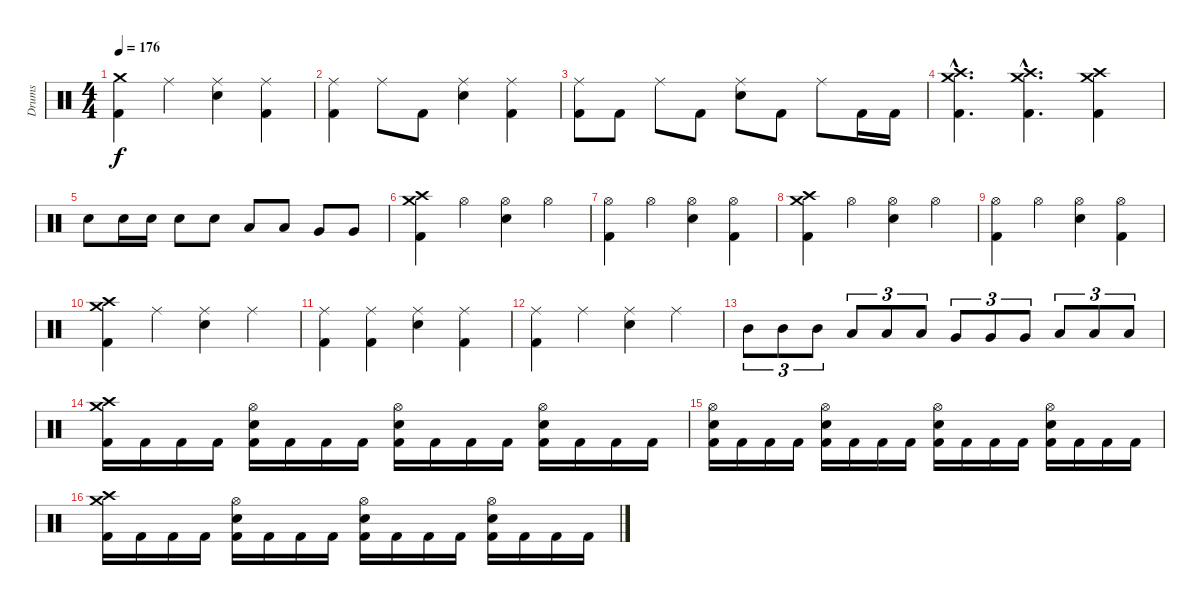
\track ("Drums" "Drums") {instrument percussion}
\staff {score}
\articulation defaults
\ts (4 4)
\tempo 176
\clef neutral
\ks c
("Crash medium (hit)" "Kick (hit) 2").4{dy f} "Ride (middle)".4 ("Ride (middle)" "Snare (hit) 2").4 ("Ride (middle)" "Kick (hit) 2").4 |
("Ride (middle)" "Kick (hit) 2").4 "Ride (middle)".8 "Kick (hit) 2".8 ("Ride (middle)" "Snare (hit) 2").4 ("Ride (middle)" "Kick (hit) 2").4 |
("Ride (middle)" "Kick (hit) 2").8 "Kick (hit) 2".8 "Ride (middle)".8 "Kick (hit) 2".8 ("Ride (middle)" "Snare (hit) 2").8 "Kick (hit) 2".8 "Ride (middle)".8 "Kick (hit) 2".16 "Kick (hit) 2".16 |
("Crash medium (hit)"{hac} "Crash high (hit)"{hac} "Kick (hit) 2"{hac}).4{d} ("Crash medium (hit)"{hac} "Crash high (hit)"{hac} "Kick (hit) 2"{hac}).4{d} ("Crash medium (hit)" "Crash high (hit)" "Kick (hit) 2").4 |
"Snare (hit) 2".8 "Snare (hit) 2".16 "Snare (hit) 2".16 "Snare (hit) 2".8 "Snare (hit) 2".8 "Low Tom (hit)".8 "Low Tom (hit)".8 "Very Low Tom (hit)".8 "Very Low Tom (hit)".8 |
("Crash high (hit)" "Crash medium (hit)" "Kick (hit) 2").4 "Hi-Hat (open)".4 ("Hi-Hat (open)" "Snare (hit) 2").4 "Hi-Hat (open)".4 |
("Hi-Hat (open)" "Kick (hit) 2").4 "Hi-Hat (open)".4 ("Hi-Hat (open)" "Snare (hit) 2").4 ("Hi-Hat (open)" "Kick (hit) 2").4 |
("Crash high (hit)" "Crash medium (hit)" "Kick (hit) 2").4 "Hi-Hat (open)".4 ("Hi-Hat (open)" "Snare (hit) 2").4 "Hi-Hat (open)".4 |
("Hi-Hat (open)" "Kick (hit) 2").4 "Hi-Hat (open)".4 ("Hi-Hat (open)" "Snare (hit) 2").4 ("Hi-Hat (open)" "Kick (hit) 2").4 |
("Crash medium (hit)" "Crash high (hit)" "Kick (hit) 2").4 "Ride (middle)".4 ("Ride (middle)" "Snare (hit) 2").4 "Ride (middle)".4 |
("Ride (middle)" "Kick (hit) 2").4 ("Ride (middle)" "Kick (hit) 2").4 ("Ride (middle)" "Snare (hit) 2").4 ("Ride (middle)" "Kick (hit) 2").4 |
("Ride (middle)" "Kick (hit) 2").4 "Ride (middle)".4 ("Ride (middle)" "Snare (hit) 2").4 "Ride (middle)".4 |
"Mid Tom (hit)".8{tu (3 2)} "Mid Tom (hit)".8{tu (3 2)} "Mid Tom (hit)".8{tu (3 2)} "Low Tom (hit)".8{tu (3 2)} "Low Tom (hit)".8{tu (3 2)} "Low Tom (hit)".8{tu (3 2)} "Very Low Tom (hit)".8{tu (3 2)} "Very Low Tom (hit)".8{tu (3 2)} "Very Low Tom (hit)".8{tu (3 2)} "Low Floor Tom (hit)".8{tu (3 2)} "Low Floor Tom (hit)".8{tu (3 2)} "Low Floor Tom (hit)".8{tu (3 2)} |
("Crash medium (hit)" "Crash high (hit)" "Kick (hit) 2").16 "Kick (hit) 2".16 "Kick (hit) 2".16 "Kick (hit) 2".16 ("Hi-Hat (open)" "Snare (hit) 2" "Kick (hit) 2").16 "Kick (hit) 2".16 "Kick (hit) 2".16 "Kick (hit) 2".16 ("Hi-Hat (open)" "Snare (hit) 2" "Kick (hit) 2").16 "Kick (hit) 2".16 "Kick (hit) 2".16 "Kick (hit) 2".16 ("Hi-Hat (open)" "Snare (hit) 2" "Kick (hit) 2").16 "Kick (hit) 2".16 "Kick (hit) 2".16 "Kick (hit) 2".16 |
("Hi-Hat (open)" "Snare (hit) 2" "Kick (hit) 2").16 "Kick (hit) 2".16 "Kick (hit) 2".16 "Kick (hit) 2".16 ("Hi-Hat (open)" "Snare (hit) 2" "Kick (hit) 2").16 "Kick (hit) 2".16 "Kick (hit) 2".16 "Kick (hit) 2".16 ("Hi-Hat (open)" "Snare (hit) 2" "Kick (hit) 2").16 "Kick (hit) 2".16 "Kick (hit) 2".16 "Kick (hit) 2".16 ("Hi-Hat (open)" "Snare (hit) 2" "Kick (hit) 2").16 "Kick (hit) 2".16 "Kick (hit) 2".16 "Kick (hit) 2".16 |
("Crash medium (hit)" "Crash high (hit)" "Kick (hit) 2").16 "Kick (hit) 2".16 "Kick (hit) 2".16 "Kick (hit) 2".16 ("Hi-Hat (open)" "Snare (hit) 2" "Kick (hit) 2").16 "Kick (hit) 2".16 "Kick (hit) 2".16 "Kick (hit) 2".16 ("Hi-Hat (open)" "Snare (hit) 2" "Kick (hit) 2").16 "Kick (hit) 2".16 "Kick (hit) 2".16 "Kick (hit) 2".16 ("Hi-Hat (open)" "Snare (hit) 2" "Kick (hit) 2").16 "Kick (hit) 2".16 "Kick (hit) 2".16 "Kick (hit) 2".16
